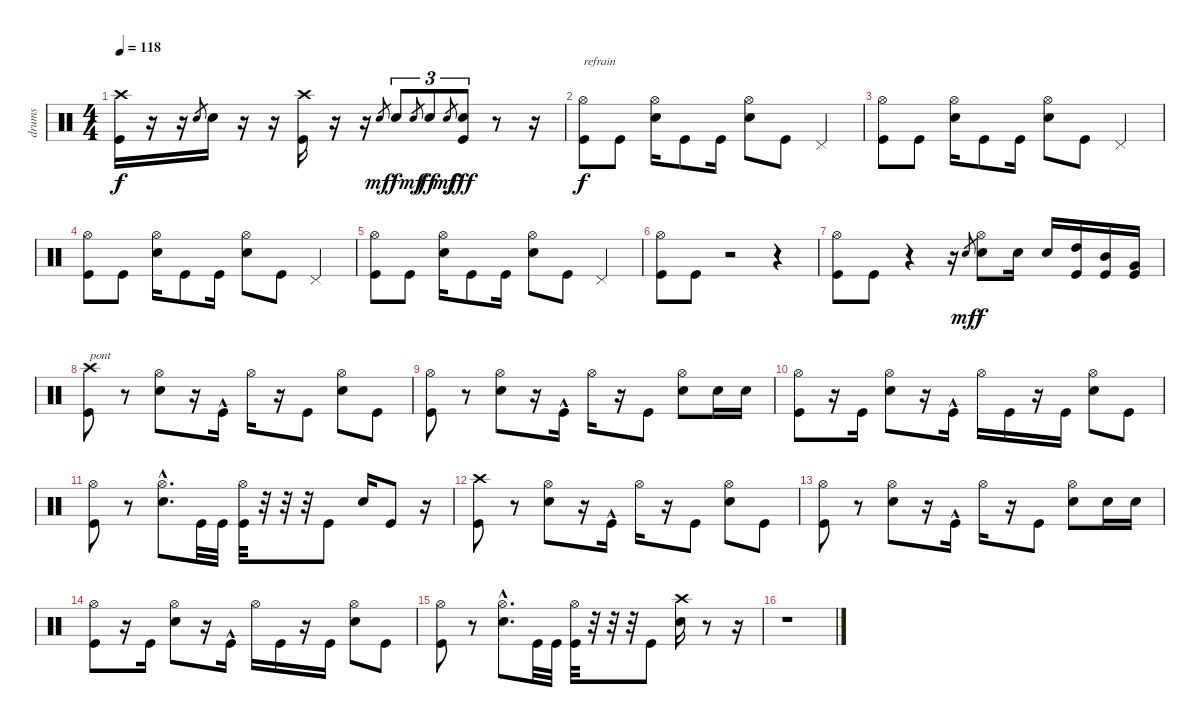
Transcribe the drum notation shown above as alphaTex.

\track ("drums" "drums") {instrument percussion}
\staff {score}
\articulation defaults
\ts (4 4)
\tempo 118
\clef neutral
\ks c
("Crash high (hit)" "Kick (hit)").16{dy f} r.16 r.16 "Electric Snare (hit)".8{gr} "Electric Snare (hit)".16 r.16 r.16 ("Crash high (hit)" "Kick (hit)").16 r.16 r.16 "Electric Snare (hit)".8{gr dy mf} "Electric Snare (hit)".8{tu (3 2) dy f} "Electric Snare (hit)".8{gr dy mf} "Electric Snare (hit)".8{tu (3 2) dy ff} "Electric Snare (hit)".8{gr dy mf} ("Electric Snare (hit)" "Kick (hit)").8{tu (3 2) dy fff} r.8 r.16 |
("Hi-Hat (open)" "Kick (hit)").8{txt "refrain" dy f} "Kick (hit)".8 ("Hi-Hat (open)" "Electric Snare (hit)").16 "Kick (hit)".8 "Kick (hit)".16 ("Hi-Hat (open)" "Electric Snare (hit)").8 "Kick (hit)".8 "Pedal Hi-Hat (hit)".4 |
("Hi-Hat (open)" "Kick (hit)").8 "Kick (hit)".8 ("Hi-Hat (open)" "Electric Snare (hit)").16 "Kick (hit)".8 "Kick (hit)".16 ("Hi-Hat (open)" "Electric Snare (hit)").8 "Kick (hit)".8 "Pedal Hi-Hat (hit)".4 |
("Hi-Hat (open)" "Kick (hit)").8 "Kick (hit)".8 ("Hi-Hat (open)" "Electric Snare (hit)").16 "Kick (hit)".8 "Kick (hit)".16 ("Hi-Hat (open)" "Electric Snare (hit)").8 "Kick (hit)".8 "Pedal Hi-Hat (hit)".4 |
("Hi-Hat (open)" "Kick (hit)").8 "Kick (hit)".8 ("Hi-Hat (open)" "Electric Snare (hit)").16 "Kick (hit)".8 "Kick (hit)".16 ("Hi-Hat (open)" "Electric Snare (hit)").8 "Kick (hit)".8 "Pedal Hi-Hat (hit)".4 |
("Hi-Hat (open)" "Kick (hit)").8 "Kick (hit)".8 r.2 r.4 |
("Hi-Hat (open)" "Kick (hit)").8 "Kick (hit)".8 r.4 r.16 "Electric Snare (hit)".8{gr dy mf} ("Hi-Hat (open)" "Electric Snare (hit)").8{dy f} "Electric Snare (hit)".16 "Electric Snare (hit)".16 ("High Tom (hit)" "Kick (hit)").16 ("Mid Tom (hit)" "Kick (hit)").16 ("Very Low Tom (hit)" "Kick (hit)").16 |
("Crash high (hit)" "Kick (hit)").8{txt "pont"} r.8 ("Hi-Hat (open)" "Electric Snare (hit)").8 r.16 "Kick (hit)"{hac}.16 "Hi-Hat (open)".16 r.16 "Kick (hit)".8 ("Hi-Hat (open)" "Electric Snare (hit)").8 "Kick (hit)".8 |
("Hi-Hat (open)" "Kick (hit)").8 r.8 ("Hi-Hat (open)" "Electric Snare (hit)").8 r.16 "Kick (hit)"{hac}.16 "Hi-Hat (open)".16 r.16 "Kick (hit)".8 ("Hi-Hat (open)" "Electric Snare (hit)").8 "Electric Snare (hit)".16 "Electric Snare (hit)".16 |
("Hi-Hat (open)" "Kick (hit)").8 r.16 "Kick (hit)".16 ("Hi-Hat (open)" "Electric Snare (hit)").8 r.16 "Kick (hit)"{hac}.16 "Hi-Hat (open)".16 "Kick (hit)".16 r.16 "Kick (hit)".16 ("Hi-Hat (open)" "Electric Snare (hit)").8 "Kick (hit)".8 |
("Hi-Hat (open)" "Kick (hit)").8 r.8 ("Hi-Hat (open)"{hac} "Electric Snare (hit)"{hac}).8{d} "Kick (hit)".32 "Kick (hit)".32 ("Hi-Hat (open)" "Kick (hit)").32 r.32 r.32 r.32 "Kick (hit)".8 "Electric Snare (hit)".16 "Kick (hit)".8 r.16 |
("Crash high (hit)" "Kick (hit)").8 r.8 ("Hi-Hat (open)" "Electric Snare (hit)").8 r.16 "Kick (hit)"{hac}.16 "Hi-Hat (open)".16 r.16 "Kick (hit)".8 ("Hi-Hat (open)" "Electric Snare (hit)").8 "Kick (hit)".8 |
("Hi-Hat (open)" "Kick (hit)").8 r.8 ("Hi-Hat (open)" "Electric Snare (hit)").8 r.16 "Kick (hit)"{hac}.16 "Hi-Hat (open)".16 r.16 "Kick (hit)".8 ("Hi-Hat (open)" "Electric Snare (hit)").8 "Electric Snare (hit)".16 "Electric Snare (hit)".16 |
("Hi-Hat (open)" "Kick (hit)").8 r.16 "Kick (hit)".16 ("Hi-Hat (open)" "Electric Snare (hit)").8 r.16 "Kick (hit)"{hac}.16 "Hi-Hat (open)".16 "Kick (hit)".16 r.16 "Kick (hit)".16 ("Hi-Hat (open)" "Electric Snare (hit)").8 "Kick (hit)".8 |
("Hi-Hat (open)" "Kick (hit)").8 r.8 ("Hi-Hat (open)"{hac} "Electric Snare (hit)"{hac}).8{d} "Kick (hit)".32 "Kick (hit)".32 ("Hi-Hat (open)" "Kick (hit)").32 r.32 r.32 r.32 "Kick (hit)".8 ("Crash high (hit)" "Electric Snare (hit)").16 r.8 r.16 |
r.1
